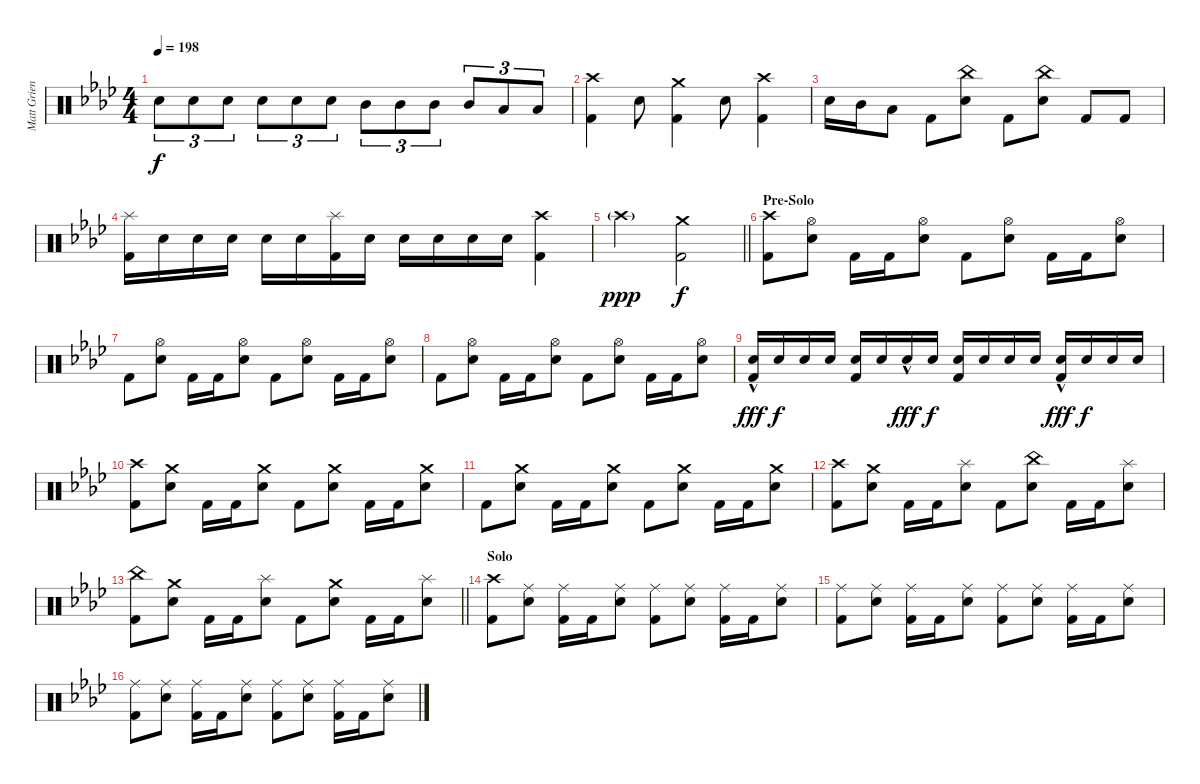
\track ("Matt Griener [Drum Kit]" "Matt Grien") {instrument percussion}
\staff {score}
\articulation defaults
\ts (4 4)
\tempo 198
\clef neutral
\ks fminor "Electric Snare (hit)".8{tu (3 2) dy f} "Electric Snare (hit)".8{tu (3 2)} "Electric Snare (hit)".8{tu (3 2)} "Electric Snare (hit)".8{tu (3 2)} "Electric Snare (hit)".8{tu (3 2)} "Electric Snare (hit)".8{tu (3 2)} "Mid Tom (hit)".8{tu (3 2)} "Mid Tom (hit)".8{tu (3 2)} "Mid Tom (hit)".8{tu (3 2)} "Mid Tom (hit)".8{tu (3 2)} "Low Tom (hit)".8{tu (3 2)} "Low Tom (hit)".8{tu (3 2)}
|
("Crash high (hit)" "Kick (hit) 2").4 "Electric Snare (hit)".8 ("Crash medium (hit)" "Kick (hit) 2").4 "Electric Snare (hit)".8 ("Crash high (hit)" "Kick (hit) 2").4 |
"Electric Snare (hit)".16 "Mid Tom (hit)".16 "Low Floor Tom (hit)".8 "Kick (hit) 2".8 ("China (hit)" "Electric Snare (hit)").8 "Kick (hit) 2".8 ("China (hit)" "Electric Snare (hit)").8 "Kick (hit) 2".8 "Kick (hit) 2".8 |
("Splash (hit)" "Kick (hit) 2").16 "Electric Snare (hit)".16 "Electric Snare (hit)".16 "Electric Snare (hit)".16 "Electric Snare (hit)".16 "Electric Snare (hit)".16 ("Splash (hit)" "Kick (hit) 2").16 "Electric Snare (hit)".16 "Electric Snare (hit)".16 "Electric Snare (hit)".16 "Electric Snare (hit)".16 "Electric Snare (hit)".16 ("Crash high (hit)" "Kick (hit) 2").4 |
\barLineRight lightlight "Crash high (hit)"{g}.2{dy ppp}
("Crash medium (hit)" "Kick (hit) 2").2{dy f} |
\section ("" "Pre-Solo")
("Crash high (hit)" "Kick (hit) 2").8 ("Hi-Hat (open)" "Electric Snare (hit)").8 "Kick (hit) 2".16 "Kick (hit) 2".16 ("Hi-Hat (open)" "Electric Snare (hit)").8 "Kick (hit) 2".8 ("Hi-Hat (open)" "Electric Snare (hit)").8 "Kick (hit) 2".16 "Kick (hit) 2".16 ("Hi-Hat (open)" "Electric Snare (hit)").8 |
"Kick (hit) 2".8 ("Hi-Hat (open)" "Electric Snare (hit)").8 "Kick (hit) 2".16 "Kick (hit) 2".16 ("Hi-Hat (open)" "Electric Snare (hit)").8 "Kick (hit) 2".8 ("Hi-Hat (open)" "Electric Snare (hit)").8 "Kick (hit) 2".16 "Kick (hit) 2".16 ("Hi-Hat (open)" "Electric Snare (hit)").8 |
"Kick (hit) 2".8 ("Hi-Hat (open)" "Electric Snare (hit)").8 "Kick (hit) 2".16 "Kick (hit) 2".16 ("Hi-Hat (open)" "Electric Snare (hit)").8 "Kick (hit) 2".8 ("Hi-Hat (open)" "Electric Snare (hit)").8 "Kick (hit) 2".16 "Kick (hit) 2".16 ("Hi-Hat (open)" "Electric Snare (hit)").8 |
("Electric Snare (hit)"{hac} "Kick (hit) 2").16{dy fff} "Electric Snare (hit)".16{dy f} "Electric Snare (hit)".16 "Electric Snare (hit)".16 ("Electric Snare (hit)" "Kick (hit) 2").16 "Electric Snare (hit)".16 "Electric Snare (hit)"{hac}.16{dy fff} "Electric Snare (hit)".16{dy f} ("Electric Snare (hit)" "Kick (hit) 2").16 "Electric Snare (hit)".16 "Electric Snare (hit)".16 "Electric Snare (hit)".16 ("Electric Snare (hit)"{hac} "Kick (hit) 2").16{dy fff} "Electric Snare (hit)".16{dy f} "Electric Snare (hit)".16 "Electric Snare (hit)".16 |
("Crash high (hit)" "Kick (hit) 2").8 ("Crash medium (hit)" "Electric Snare (hit)").8 "Kick (hit) 2".16 "Kick (hit) 2".16 ("Crash medium (hit)" "Electric Snare (hit)").8 "Kick (hit) 2".8 ("Crash medium (hit)" "Electric Snare (hit)").8 "Kick (hit) 2".16 "Kick (hit) 2".16 ("Crash medium (hit)" "Electric Snare (hit)").8 |
"Kick (hit) 2".8 ("Crash medium (hit)" "Electric Snare (hit)").8 "Kick (hit) 2".16 "Kick (hit) 2".16 ("Crash medium (hit)" "Electric Snare (hit)").8 "Kick (hit) 2".8 ("Crash medium (hit)" "Electric Snare (hit)").8 "Kick (hit) 2".16 "Kick (hit) 2".16 ("Crash medium (hit)" "Electric Snare (hit)").8 |
("Crash high (hit)" "Kick (hit) 2").8 ("Crash medium (hit)" "Electric Snare (hit)").8 "Kick (hit) 2".16 "Kick (hit) 2".16 ("Splash (hit)" "Electric Snare (hit)").8 "Kick (hit) 2".8 ("China (hit)" "Electric Snare (hit)").8 "Kick (hit) 2".16 "Kick (hit) 2".16 ("Splash (hit)" "Electric Snare (hit)").8 |
\barLineRight lightlight
("China (hit)" "Kick (hit) 2").8 ("Crash medium (hit)" "Electric Snare (hit)").8 "Kick (hit) 2".16 "Kick (hit) 2".16 ("Splash (hit)" "Electric Snare (hit)").8 "Kick (hit) 2".8 ("Crash medium (hit)" "Electric Snare (hit)").8 "Kick (hit) 2".16 "Kick (hit) 2".16 ("Splash (hit)" "Electric Snare (hit)").8 |
\section ("" "Solo")
("Crash high (hit)" "Kick (hit) 2").8 ("Ride (middle)" "Electric Snare (hit)").8 ("Ride (middle)" "Kick (hit) 2").16 "Kick (hit) 2".16 ("Ride (middle)" "Electric Snare (hit)").8 ("Ride (middle)" "Kick (hit) 2").8 ("Ride (middle)" "Electric Snare (hit)").8 ("Ride (middle)" "Kick (hit) 2").16 "Kick (hit) 2".16 ("Ride (middle)" "Electric Snare (hit)").8 |
("Ride (middle)" "Kick (hit) 2").8 ("Ride (middle)" "Electric Snare (hit)").8 ("Ride (middle)" "Kick (hit) 2").16 "Kick (hit) 2".16 ("Ride (middle)" "Electric Snare (hit)").8 ("Ride (middle)" "Kick (hit) 2").8 ("Ride (middle)" "Electric Snare (hit)").8 ("Ride (middle)" "Kick (hit) 2").16 "Kick (hit) 2".16 ("Ride (middle)" "Electric Snare (hit)").8 |
("Ride (middle)" "Kick (hit) 2").8 ("Ride (middle)" "Electric Snare (hit)").8 ("Ride (middle)" "Kick (hit) 2").16 "Kick (hit) 2".16 ("Ride (middle)" "Electric Snare (hit)").8 ("Ride (middle)" "Kick (hit) 2").8 ("Ride (middle)" "Electric Snare (hit)").8 ("Ride (middle)" "Kick (hit) 2").16 "Kick (hit) 2".16 ("Ride (middle)" "Electric Snare (hit)").8
